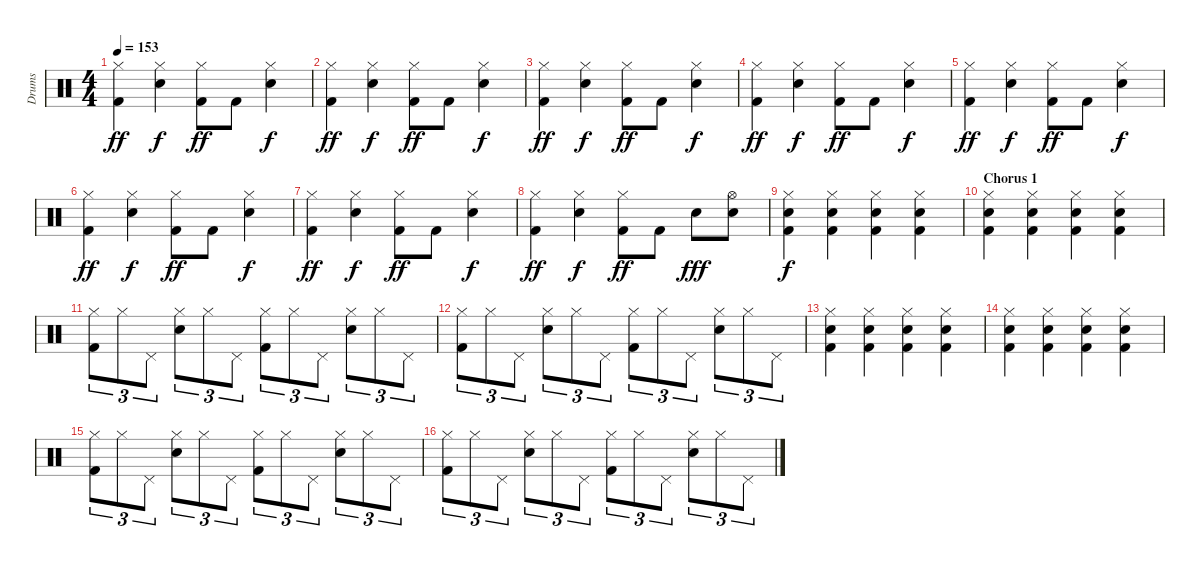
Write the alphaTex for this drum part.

\track ("Drums" "Drums") {instrument percussion}
\staff {score}
\articulation defaults
\ts (4 4)
\tempo 153
\clef neutral
\ks c
("Hi-Hat (closed)" "Kick (hit) 2").4{dy ff} ("Hi-Hat (closed)" "Electric Snare (hit)").4{dy f} ("Hi-Hat (closed)" "Kick (hit) 2").8{dy ff} "Kick (hit) 2".8 ("Hi-Hat (closed)" "Electric Snare (hit)").4{dy f} |
("Hi-Hat (closed)" "Kick (hit) 2").4{dy ff} ("Hi-Hat (closed)" "Electric Snare (hit)").4{dy f} ("Hi-Hat (closed)" "Kick (hit) 2").8{dy ff} "Kick (hit) 2".8 ("Hi-Hat (closed)" "Electric Snare (hit)").4{dy f} |
("Hi-Hat (closed)" "Kick (hit) 2").4{dy ff} ("Hi-Hat (closed)" "Electric Snare (hit)").4{dy f} ("Hi-Hat (closed)" "Kick (hit) 2").8{dy ff} "Kick (hit) 2".8 ("Hi-Hat (closed)" "Electric Snare (hit)").4{dy f} |
("Hi-Hat (closed)" "Kick (hit) 2").4{dy ff} ("Hi-Hat (closed)" "Electric Snare (hit)").4{dy f} ("Hi-Hat (closed)" "Kick (hit) 2").8{dy ff} "Kick (hit) 2".8 ("Hi-Hat (closed)" "Electric Snare (hit)").4{dy f} |
("Hi-Hat (closed)" "Kick (hit) 2").4{dy ff} ("Hi-Hat (closed)" "Electric Snare (hit)").4{dy f} ("Hi-Hat (closed)" "Kick (hit) 2").8{dy ff} "Kick (hit) 2".8 ("Hi-Hat (closed)" "Electric Snare (hit)").4{dy f} |
("Hi-Hat (closed)" "Kick (hit) 2").4{dy ff} ("Hi-Hat (closed)" "Electric Snare (hit)").4{dy f} ("Hi-Hat (closed)" "Kick (hit) 2").8{dy ff} "Kick (hit) 2".8 ("Hi-Hat (closed)" "Electric Snare (hit)").4{dy f} |
("Hi-Hat (closed)" "Kick (hit) 2").4{dy ff} ("Hi-Hat (closed)" "Electric Snare (hit)").4{dy f} ("Hi-Hat (closed)" "Kick (hit) 2").8{dy ff} "Kick (hit) 2".8 ("Hi-Hat (closed)" "Electric Snare (hit)").4{dy f} |
("Hi-Hat (closed)" "Kick (hit) 2").4{dy ff} ("Hi-Hat (closed)" "Electric Snare (hit)").4{dy f} ("Hi-Hat (closed)" "Kick (hit) 2").8{dy ff} "Kick (hit) 2".8 "Electric Snare (hit)".8{dy fff} ("Hi-Hat (open)" "Electric Snare (hit)").8 |
("Hi-Hat (closed)" "Electric Snare (hit)" "Kick (hit) 2").4{dy f} ("Hi-Hat (closed)" "Electric Snare (hit)" "Kick (hit) 2").4 ("Hi-Hat (closed)" "Electric Snare (hit)" "Kick (hit) 2").4 ("Hi-Hat (closed)" "Electric Snare (hit)" "Kick (hit) 2").4 |
\section ("" "Chorus 1")
("Hi-Hat (closed)" "Electric Snare (hit)" "Kick (hit) 2").4 ("Hi-Hat (closed)" "Electric Snare (hit)" "Kick (hit) 2").4 ("Hi-Hat (closed)" "Electric Snare (hit)" "Kick (hit) 2").4 ("Hi-Hat (closed)" "Electric Snare (hit)" "Kick (hit) 2").4 |
("Hi-Hat (closed)" "Kick (hit) 2").8{tu (3 2)} "Hi-Hat (closed)".8{tu (3 2)} "Pedal Hi-Hat (hit)".8{tu (3 2)} ("Hi-Hat (closed)" "Electric Snare (hit)").8{tu (3 2)} "Hi-Hat (closed)".8{tu (3 2)} "Pedal Hi-Hat (hit)".8{tu (3 2)} ("Hi-Hat (closed)" "Kick (hit) 2").8{tu (3 2)} "Hi-Hat (closed)".8{tu (3 2)} "Pedal Hi-Hat (hit)".8{tu (3 2)} ("Hi-Hat (closed)" "Electric Snare (hit)").8{tu (3 2)} "Hi-Hat (closed)".8{tu (3 2)} "Pedal Hi-Hat (hit)".8{tu (3 2)} |
("Hi-Hat (closed)" "Kick (hit) 2").8{tu (3 2)} "Hi-Hat (closed)".8{tu (3 2)} "Pedal Hi-Hat (hit)".8{tu (3 2)} ("Hi-Hat (closed)" "Electric Snare (hit)").8{tu (3 2)} "Hi-Hat (closed)".8{tu (3 2)} "Pedal Hi-Hat (hit)".8{tu (3 2)} ("Hi-Hat (closed)" "Kick (hit) 2").8{tu (3 2)} "Hi-Hat (closed)".8{tu (3 2)} "Pedal Hi-Hat (hit)".8{tu (3 2)} ("Hi-Hat (closed)" "Electric Snare (hit)").8{tu (3 2)} "Hi-Hat (closed)".8{tu (3 2)} "Pedal Hi-Hat (hit)".8{tu (3 2)} |
("Hi-Hat (closed)" "Electric Snare (hit)" "Kick (hit) 2").4 ("Hi-Hat (closed)" "Electric Snare (hit)" "Kick (hit) 2").4 ("Hi-Hat (closed)" "Electric Snare (hit)" "Kick (hit) 2").4 ("Hi-Hat (closed)" "Electric Snare (hit)" "Kick (hit) 2").4 |
("Hi-Hat (closed)" "Electric Snare (hit)" "Kick (hit) 2").4 ("Hi-Hat (closed)" "Electric Snare (hit)" "Kick (hit) 2").4 ("Hi-Hat (closed)" "Electric Snare (hit)" "Kick (hit) 2").4 ("Hi-Hat (closed)" "Electric Snare (hit)" "Kick (hit) 2").4 |
("Hi-Hat (closed)" "Kick (hit) 2").8{tu (3 2)} "Hi-Hat (closed)".8{tu (3 2)} "Pedal Hi-Hat (hit)".8{tu (3 2)} ("Hi-Hat (closed)" "Electric Snare (hit)").8{tu (3 2)} "Hi-Hat (closed)".8{tu (3 2)} "Pedal Hi-Hat (hit)".8{tu (3 2)} ("Hi-Hat (closed)" "Kick (hit) 2").8{tu (3 2)} "Hi-Hat (closed)".8{tu (3 2)} "Pedal Hi-Hat (hit)".8{tu (3 2)} ("Hi-Hat (closed)" "Electric Snare (hit)").8{tu (3 2)} "Hi-Hat (closed)".8{tu (3 2)} "Pedal Hi-Hat (hit)".8{tu (3 2)} |
("Hi-Hat (closed)" "Kick (hit) 2").8{tu (3 2)} "Hi-Hat (closed)".8{tu (3 2)} "Pedal Hi-Hat (hit)".8{tu (3 2)} ("Hi-Hat (closed)" "Electric Snare (hit)").8{tu (3 2)} "Hi-Hat (closed)".8{tu (3 2)} "Pedal Hi-Hat (hit)".8{tu (3 2)} ("Hi-Hat (closed)" "Kick (hit) 2").8{tu (3 2)} "Hi-Hat (closed)".8{tu (3 2)} "Pedal Hi-Hat (hit)".8{tu (3 2)} ("Hi-Hat (closed)" "Electric Snare (hit)").8{tu (3 2)} "Hi-Hat (closed)".8{tu (3 2)} "Pedal Hi-Hat (hit)".8{tu (3 2)}
